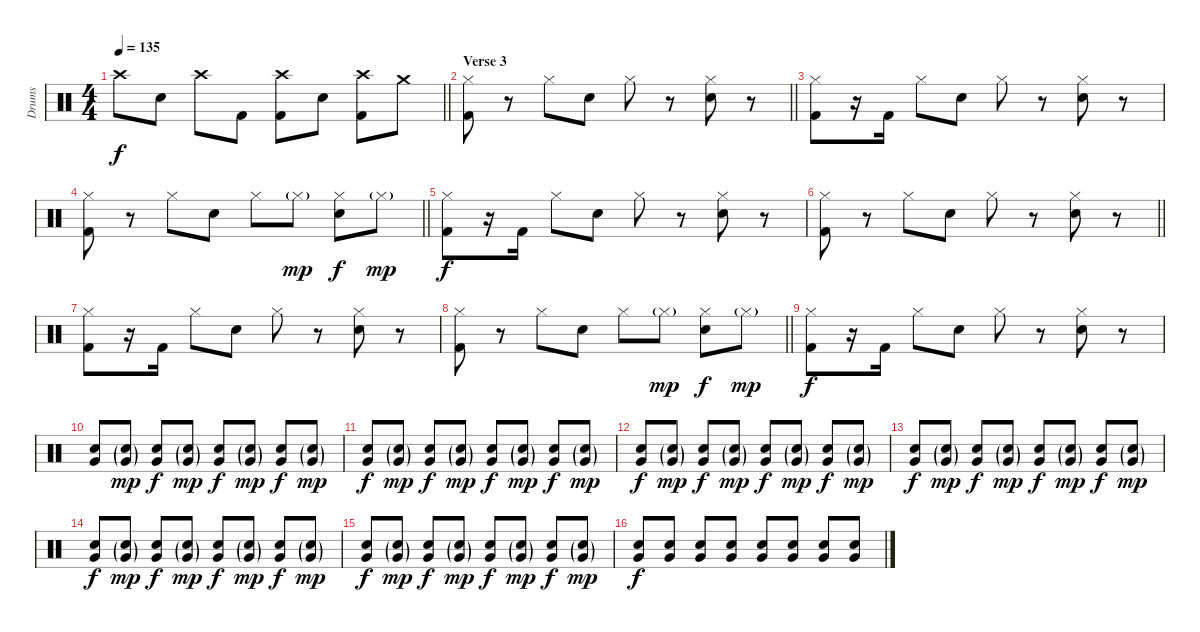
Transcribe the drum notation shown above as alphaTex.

\track ("Drums" "Drums") {instrument percussion}
\staff {score}
\articulation defaults
\ts (4 4)
\tempo 135
\clef neutral
\barLineRight lightlight
\ks c "Crash high (hit)".8{dy f} "Electric Snare (hit)".8 "Crash high (hit)".8 "Kick (hit) 2".8
("Crash high (hit)" "Kick (hit) 2").8 "Electric Snare (hit)".8 ("Crash high (hit)" "Kick (hit) 2").8 "Crash medium (hit)".8 |
\section ("" "Verse 3")
\barLineRight lightlight
("Hi-Hat (closed)" "Kick (hit) 2").8 r.8 "Hi-Hat (closed)".8 "Electric Snare (hit)".8 "Hi-Hat (closed)".8 r.8 ("Hi-Hat (closed)" "Electric Snare (hit)").8 r.8 |
("Hi-Hat (closed)" "Kick (hit) 2").8 r.16 "Kick (hit) 2".16 "Hi-Hat (closed)".8 "Electric Snare (hit)".8 "Hi-Hat (closed)".8 r.8 ("Hi-Hat (closed)" "Electric Snare (hit)").8 r.8 |
\barLineRight lightlight
("Hi-Hat (closed)" "Kick (hit) 2").8 r.8 "Hi-Hat (closed)".8 "Electric Snare (hit)".8 "Hi-Hat (closed)".8 "Hi-Hat (closed)"{g}.8{dy mp} ("Hi-Hat (closed)" "Electric Snare (hit)").8{dy f} "Hi-Hat (closed)"{g}.8{dy mp} |
("Hi-Hat (closed)" "Kick (hit) 2").8{dy f} r.16 "Kick (hit) 2".16 "Hi-Hat (closed)".8 "Electric Snare (hit)".8 "Hi-Hat (closed)".8 r.8 ("Hi-Hat (closed)" "Electric Snare (hit)").8 r.8 |
\barLineRight lightlight
("Hi-Hat (closed)" "Kick (hit) 2").8 r.8 "Hi-Hat (closed)".8 "Electric Snare (hit)".8 "Hi-Hat (closed)".8 r.8 ("Hi-Hat (closed)" "Electric Snare (hit)").8 r.8 |
("Hi-Hat (closed)" "Kick (hit) 2").8 r.16 "Kick (hit) 2".16 "Hi-Hat (closed)".8 "Electric Snare (hit)".8 "Hi-Hat (closed)".8 r.8 ("Hi-Hat (closed)" "Electric Snare (hit)").8 r.8 |
\barLineRight lightlight
("Hi-Hat (closed)" "Kick (hit) 2").8 r.8 "Hi-Hat (closed)".8 "Electric Snare (hit)".8 "Hi-Hat (closed)".8 "Hi-Hat (closed)"{g}.8{dy mp} ("Hi-Hat (closed)" "Electric Snare (hit)").8{dy f} "Hi-Hat (closed)"{g}.8{dy mp} |
("Hi-Hat (closed)" "Kick (hit) 2").8{dy f} r.16 "Kick (hit) 2".16 "Hi-Hat (closed)".8 "Electric Snare (hit)".8 "Hi-Hat (closed)".8 r.8 ("Hi-Hat (closed)" "Electric Snare (hit)").8 r.8 |
("Very Low Tom (hit)" "Electric Snare (hit)").8{volume 7} ("Very Low Tom (hit)"{g} "Electric Snare (hit)"{g}).8{dy mp} ("Very Low Tom (hit)" "Electric Snare (hit)").8{dy f} ("Very Low Tom (hit)"{g} "Electric Snare (hit)"{g}).8{dy mp} ("Very Low Tom (hit)" "Electric Snare (hit)").8{dy f} ("Very Low Tom (hit)"{g} "Electric Snare (hit)"{g}).8{dy mp} ("Very Low Tom (hit)" "Electric Snare (hit)").8{dy f} ("Very Low Tom (hit)"{g} "Electric Snare (hit)"{g}).8{dy mp} |
("Very Low Tom (hit)" "Electric Snare (hit)").8{dy f} ("Very Low Tom (hit)"{g} "Electric Snare (hit)"{g}).8{dy mp} ("Very Low Tom (hit)" "Electric Snare (hit)").8{dy f} ("Very Low Tom (hit)"{g} "Electric Snare (hit)"{g}).8{dy mp} ("Very Low Tom (hit)" "Electric Snare (hit)").8{dy f} ("Very Low Tom (hit)"{g} "Electric Snare (hit)"{g}).8{dy mp} ("Very Low Tom (hit)" "Electric Snare (hit)").8{dy f} ("Very Low Tom (hit)"{g} "Electric Snare (hit)"{g}).8{dy mp} |
("Very Low Tom (hit)" "Electric Snare (hit)").8{dy f} ("Very Low Tom (hit)"{g} "Electric Snare (hit)"{g}).8{dy mp} ("Very Low Tom (hit)" "Electric Snare (hit)").8{dy f} ("Very Low Tom (hit)"{g} "Electric Snare (hit)"{g}).8{dy mp} ("Very Low Tom (hit)" "Electric Snare (hit)").8{dy f} ("Very Low Tom (hit)"{g} "Electric Snare (hit)"{g}).8{dy mp} ("Very Low Tom (hit)" "Electric Snare (hit)").8{dy f} ("Very Low Tom (hit)"{g} "Electric Snare (hit)"{g}).8{dy mp} |
("Very Low Tom (hit)" "Electric Snare (hit)").8{dy f} ("Very Low Tom (hit)"{g} "Electric Snare (hit)"{g}).8{dy mp} ("Very Low Tom (hit)" "Electric Snare (hit)").8{dy f} ("Very Low Tom (hit)"{g} "Electric Snare (hit)"{g}).8{dy mp} ("Very Low Tom (hit)" "Electric Snare (hit)").8{dy f} ("Very Low Tom (hit)"{g} "Electric Snare (hit)"{g}).8{dy mp} ("Very Low Tom (hit)" "Electric Snare (hit)").8{dy f} ("Very Low Tom (hit)"{g} "Electric Snare (hit)"{g}).8{dy mp} |
("Very Low Tom (hit)" "Electric Snare (hit)").8{dy f} ("Very Low Tom (hit)"{g} "Electric Snare (hit)"{g}).8{dy mp} ("Very Low Tom (hit)" "Electric Snare (hit)").8{dy f} ("Very Low Tom (hit)"{g} "Electric Snare (hit)"{g}).8{dy mp} ("Very Low Tom (hit)" "Electric Snare (hit)").8{dy f} ("Very Low Tom (hit)"{g} "Electric Snare (hit)"{g}).8{dy mp} ("Very Low Tom (hit)" "Electric Snare (hit)").8{dy f} ("Very Low Tom (hit)"{g} "Electric Snare (hit)"{g}).8{dy mp} |
("Very Low Tom (hit)" "Electric Snare (hit)").8{dy f volume 13} ("Very Low Tom (hit)"{g} "Electric Snare (hit)"{g}).8{dy mp} ("Very Low Tom (hit)" "Electric Snare (hit)").8{dy f} ("Very Low Tom (hit)"{g} "Electric Snare (hit)"{g}).8{dy mp} ("Very Low Tom (hit)" "Electric Snare (hit)").8{dy f} ("Very Low Tom (hit)"{g} "Electric Snare (hit)"{g}).8{dy mp} ("Very Low Tom (hit)" "Electric Snare (hit)").8{dy f} ("Very Low Tom (hit)"{g} "Electric Snare (hit)"{g}).8{dy mp} |
("Very Low Tom (hit)" "Electric Snare (hit)").8{dy f volume 13} ("Very Low Tom (hit)" "Electric Snare (hit)").8 ("Very Low Tom (hit)" "Electric Snare (hit)").8 ("Very Low Tom (hit)" "Electric Snare (hit)").8 ("Very Low Tom (hit)" "Electric Snare (hit)").8 ("Very Low Tom (hit)" "Electric Snare (hit)").8 ("Very Low Tom (hit)" "Electric Snare (hit)").8 ("Very Low Tom (hit)" "Electric Snare (hit)").8
